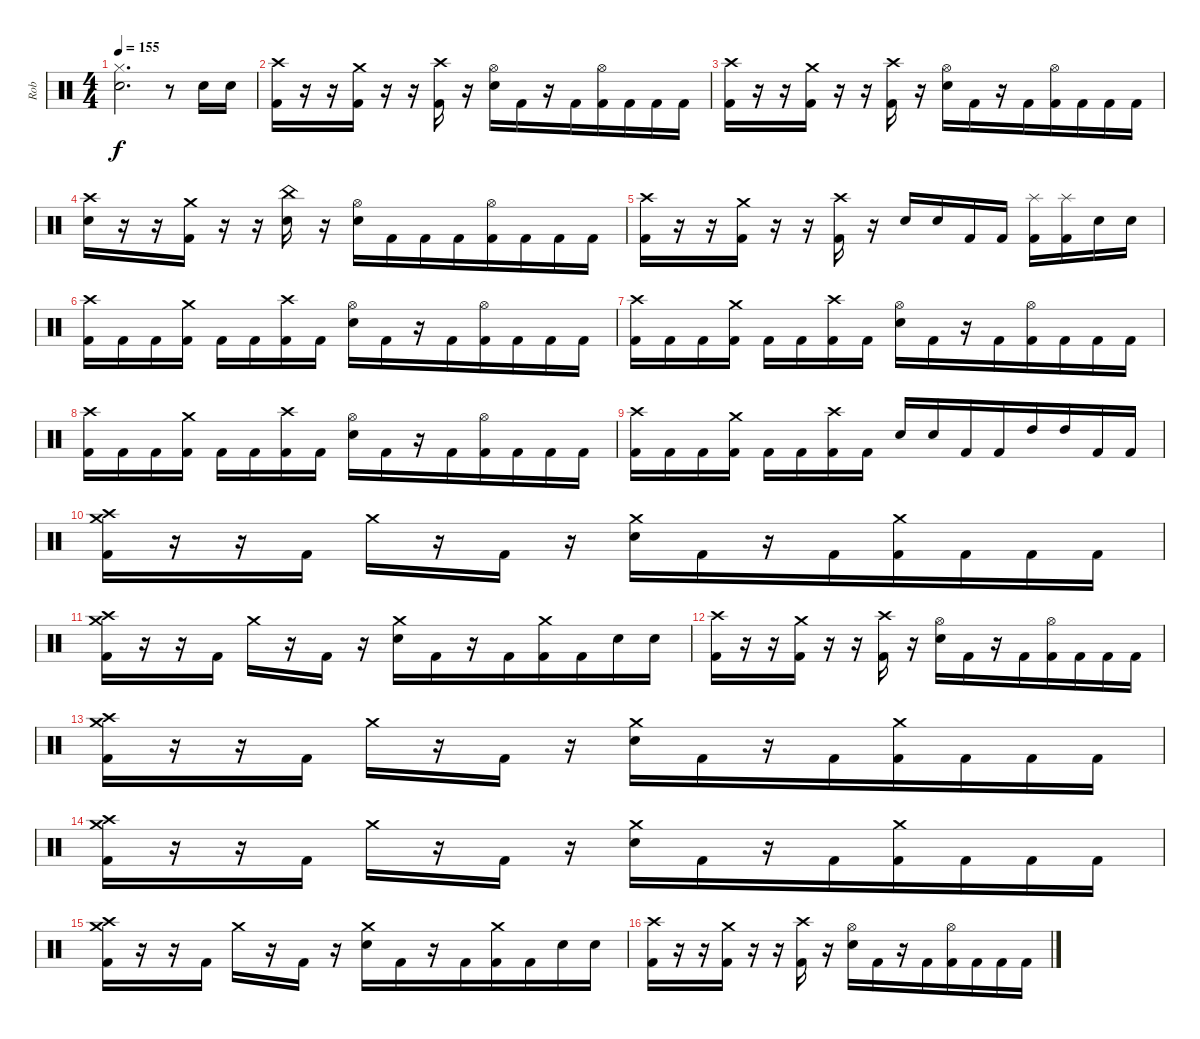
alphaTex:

\track ("Rob" "Rob") {instrument percussion}
\staff {score}
\articulation defaults
\ts (4 4)
\tempo 155
\clef neutral
\ks c
("Hi-Hat (closed)" "Electric Snare (hit)").2{d dy f} r.8 "Electric Snare (hit)".16 "Electric Snare (hit)".16 |
("Crash high (hit)" "Kick (hit) 2").16 r.16 r.16{beam merge} ("Crash medium (hit)" "Kick (hit) 2").16 r.16 r.16 ("Crash high (hit)" "Kick (hit) 2").16 r.16 ("Hi-Hat (open)" "Electric Snare (hit)").16 "Kick (hit) 2".16 r.16 "Kick (hit) 2".16{beam merge} ("Hi-Hat (open)" "Kick (hit) 2").16 "Kick (hit) 2".16 "Kick (hit) 2".16 "Kick (hit) 2".16 |
("Crash high (hit)" "Kick (hit) 2").16 r.16 r.16{beam merge} ("Crash medium (hit)" "Kick (hit) 2").16 r.16 r.16 ("Crash high (hit)" "Kick (hit) 2").16 r.16 ("Hi-Hat (open)" "Electric Snare (hit)").16 "Kick (hit) 2".16 r.16 "Kick (hit) 2".16{beam merge} ("Hi-Hat (open)" "Kick (hit) 2").16 "Kick (hit) 2".16 "Kick (hit) 2".16 "Kick (hit) 2".16 |
("Crash high (hit)" "Electric Snare (hit)").16 r.16 r.16{beam merge} ("Crash medium (hit)" "Kick (hit) 2").16 r.16 r.16 ("China (hit)" "Electric Snare (hit)").16 r.16 ("Hi-Hat (open)" "Electric Snare (hit)").16 "Kick (hit) 2".16 "Kick (hit) 2".16 "Kick (hit) 2".16{beam merge} ("Hi-Hat (open)" "Kick (hit) 2").16 "Kick (hit) 2".16 "Kick (hit) 2".16 "Kick (hit) 2".16 |
("Crash high (hit)" "Kick (hit) 2").16 r.16 r.16{beam merge} ("Crash medium (hit)" "Kick (hit) 2").16 r.16 r.16 ("Crash high (hit)" "Kick (hit) 2").16 r.16 "Electric Snare (hit)".16{beam merge} "Electric Snare (hit)".16 "Kick (hit) 2".16{beam merge} "Kick (hit) 2".16 ("Kick (hit) 2" "Splash (hit)").16 ("Kick (hit) 2" "Splash (hit)").16 "Electric Snare (hit)".16 "Electric Snare (hit)".16 |
("Crash high (hit)" "Kick (hit) 2").16 "Kick (hit) 2".16 "Kick (hit) 2".16{beam merge} ("Crash medium (hit)" "Kick (hit) 2").16 "Kick (hit) 2".16 "Kick (hit) 2".16 ("Crash high (hit)" "Kick (hit) 2").16 "Kick (hit) 2".16 ("Hi-Hat (open)" "Electric Snare (hit)").16 "Kick (hit) 2".16 r.16 "Kick (hit) 2".16{beam merge} ("Hi-Hat (open)" "Kick (hit) 2").16 "Kick (hit) 2".16 "Kick (hit) 2".16 "Kick (hit) 2".16 |
("Crash high (hit)" "Kick (hit) 2").16 "Kick (hit) 2".16 "Kick (hit) 2".16{beam merge} ("Crash medium (hit)" "Kick (hit) 2").16 "Kick (hit) 2".16 "Kick (hit) 2".16 ("Crash high (hit)" "Kick (hit) 2").16 "Kick (hit) 2".16 ("Hi-Hat (open)" "Electric Snare (hit)").16 "Kick (hit) 2".16 r.16 "Kick (hit) 2".16{beam merge} ("Hi-Hat (open)" "Kick (hit) 2").16 "Kick (hit) 2".16 "Kick (hit) 2".16 "Kick (hit) 2".16 |
("Crash high (hit)" "Kick (hit) 2").16 "Kick (hit) 2".16 "Kick (hit) 2".16{beam merge} ("Crash medium (hit)" "Kick (hit) 2").16 "Kick (hit) 2".16 "Kick (hit) 2".16 ("Crash high (hit)" "Kick (hit) 2").16 "Kick (hit) 2".16 ("Hi-Hat (open)" "Electric Snare (hit)").16 "Kick (hit) 2".16 r.16 "Kick (hit) 2".16{beam merge} ("Hi-Hat (open)" "Kick (hit) 2").16 "Kick (hit) 2".16 "Kick (hit) 2".16 "Kick (hit) 2".16 |
("Crash high (hit)" "Kick (hit) 2").16 "Kick (hit) 2".16 "Kick (hit) 2".16{beam merge} ("Crash medium (hit)" "Kick (hit) 2").16 "Kick (hit) 2".16 "Kick (hit) 2".16 ("Crash high (hit)" "Kick (hit) 2").16 "Kick (hit) 2".16 "Electric Snare (hit)".16 "Electric Snare (hit)".16 "Kick (hit) 2".16 "Kick (hit) 2".16{beam merge} "High Tom (hit)".16 "High Tom (hit)".16 "Kick (hit) 2".16 "Kick (hit) 2".16 |
("Crash high (hit)" "Crash medium (hit)" "Kick (hit) 2").16 r.16 r.16{beam merge} "Kick (hit) 2".16 "Crash medium (hit)".16 r.16 "Kick (hit) 2".16 r.16 ("Crash medium (hit)" "Electric Snare (hit)").16 "Kick (hit) 2".16 r.16 "Kick (hit) 2".16{beam merge} ("Crash medium (hit)" "Kick (hit) 2").16 "Kick (hit) 2".16 "Kick (hit) 2".16 "Kick (hit) 2".16 |
("Crash high (hit)" "Crash medium (hit)" "Kick (hit) 2").16 r.16 r.16{beam merge} "Kick (hit) 2".16 "Crash medium (hit)".16 r.16 "Kick (hit) 2".16 r.16 ("Crash medium (hit)" "Electric Snare (hit)").16 "Kick (hit) 2".16 r.16 "Kick (hit) 2".16{beam merge} ("Crash medium (hit)" "Kick (hit) 2").16 "Kick (hit) 2".16 "Electric Snare (hit)".16 "Electric Snare (hit)".16 |
("Crash high (hit)" "Kick (hit) 2").16 r.16 r.16{beam merge} ("Crash medium (hit)" "Kick (hit) 2").16 r.16 r.16 ("Crash high (hit)" "Kick (hit) 2").16 r.16 ("Hi-Hat (open)" "Electric Snare (hit)").16 "Kick (hit) 2".16 r.16 "Kick (hit) 2".16{beam merge} ("Hi-Hat (open)" "Kick (hit) 2").16 "Kick (hit) 2".16 "Kick (hit) 2".16 "Kick (hit) 2".16 |
("Crash high (hit)" "Crash medium (hit)" "Kick (hit) 2").16 r.16 r.16{beam merge} "Kick (hit) 2".16 "Crash medium (hit)".16 r.16 "Kick (hit) 2".16 r.16 ("Crash medium (hit)" "Electric Snare (hit)").16 "Kick (hit) 2".16 r.16 "Kick (hit) 2".16{beam merge} ("Crash medium (hit)" "Kick (hit) 2").16 "Kick (hit) 2".16 "Kick (hit) 2".16 "Kick (hit) 2".16 |
("Crash high (hit)" "Crash medium (hit)" "Kick (hit) 2").16 r.16 r.16{beam merge} "Kick (hit) 2".16 "Crash medium (hit)".16 r.16 "Kick (hit) 2".16 r.16 ("Crash medium (hit)" "Electric Snare (hit)").16 "Kick (hit) 2".16 r.16 "Kick (hit) 2".16{beam merge} ("Crash medium (hit)" "Kick (hit) 2").16 "Kick (hit) 2".16 "Kick (hit) 2".16 "Kick (hit) 2".16 |
("Crash high (hit)" "Crash medium (hit)" "Kick (hit) 2").16 r.16 r.16{beam merge} "Kick (hit) 2".16 "Crash medium (hit)".16 r.16 "Kick (hit) 2".16 r.16 ("Crash medium (hit)" "Electric Snare (hit)").16 "Kick (hit) 2".16 r.16 "Kick (hit) 2".16{beam merge} ("Crash medium (hit)" "Kick (hit) 2").16 "Kick (hit) 2".16 "Electric Snare (hit)".16 "Electric Snare (hit)".16 |
("Crash high (hit)" "Kick (hit) 2").16 r.16 r.16{beam merge} ("Crash medium (hit)" "Kick (hit) 2").16 r.16 r.16 ("Crash high (hit)" "Kick (hit) 2").16 r.16 ("Hi-Hat (open)" "Electric Snare (hit)").16 "Kick (hit) 2".16 r.16 "Kick (hit) 2".16{beam merge} ("Hi-Hat (open)" "Kick (hit) 2").16 "Kick (hit) 2".16 "Kick (hit) 2".16 "Kick (hit) 2".16
